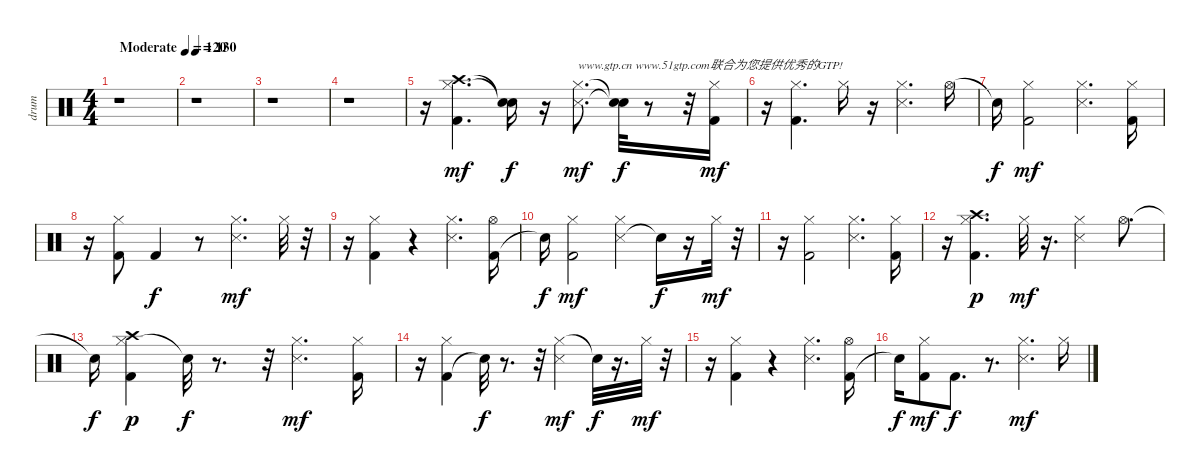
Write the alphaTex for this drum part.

\track ("drum" "drum") {instrument percussion}
\staff {score}
\articulation defaults
\ts (4 4)
\tempo (120 "Moderate")
\clef neutral
\ks c
r.1{dy mf} |
\tempo 130
r.1 |
r.1 |
r.1 |
r.16 ("Crash high (hit)" "Hi-Hat (closed)" "Kick (hit) 2").4{d} ("Snare (hit)"{t} "Snare (hit)"{t}).16{dy f} r.16 ("Hi-Hat (closed)" "Snare (side stick) 3").8{d txt "www.gtp.cn www.51gtp.com联合为您提供优秀的GTP!" dy mf} ("Snare (hit)"{t} "Snare (hit)"{t}).32{dy f} r.8 r.32 ("Kick (hit) 2" "Hi-Hat (closed)").16{dy mf} |
r.16 ("Kick (hit) 2" "Hi-Hat (closed)").4{d} "Hi-Hat (closed)".16 r.16 ("Hi-Hat (closed)" "Snare (side stick) 3").4{d} "Hi-Hat (open)".16 |
"Snare (hit)"{t}.16{dy f} ("Kick (hit) 2" "Hi-Hat (closed)").2{dy mf} ("Snare (side stick) 3" "Hi-Hat (closed)").4{d} ("Kick (hit) 2" "Hi-Hat (closed)").16 |
r.16 ("Kick (hit) 2" "Hi-Hat (closed)").8 "Kick (hit) 2".4{dy f} r.8 ("Hi-Hat (closed)" "Snare (side stick) 3").4{d dy mf} "Hi-Hat (closed)".32 r.32 |
r.16 ("Kick (hit) 2" "Hi-Hat (closed)").4 r.4 ("Hi-Hat (closed)" "Snare (side stick) 3").4{d} ("Kick (hit) 2" "Hi-Hat (open)").16 |
"Snare (hit)"{t}.16{dy f} ("Hi-Hat (closed)" "Kick (hit) 2").2{dy mf} ("Snare (side stick) 3" "Hi-Hat (closed)").4 "Snare (hit)"{t}.16{dy f} r.16 "Hi-Hat (closed)".32{dy mf} r.32 |
r.16 ("Kick (hit) 2" "Hi-Hat (closed)").2 ("Hi-Hat (closed)" "Snare (side stick) 3").4{d} ("Kick (hit) 2" "Hi-Hat (closed)").16 |
r.16 ("Kick (hit) 2" "Hi-Hat (closed)" "Crash high (hit)").4{d dy p} "Hi-Hat (closed)".32{dy mf} r.16{d} ("Hi-Hat (closed)" "Snare (side stick) 3").4 "Hi-Hat (open)".8{d} |
"Snare (hit)"{t}.16{dy f} ("Hi-Hat (closed)" "Kick (hit) 2" "Crash high (hit)").4{dy p} "Snare (hit)"{t}.32{dy f} r.8{d} r.32 ("Hi-Hat (closed)" "Snare (side stick) 3").4{d dy mf} ("Kick (hit) 2" "Hi-Hat (closed)").16 |
r.16 ("Kick (hit) 2" "Hi-Hat (closed)").4 "Snare (hit)"{t}.32{dy f} r.8{d} r.32 ("Hi-Hat (closed)" "Snare (side stick) 3").4{dy mf} "Snare (hit)"{t}.32{dy f} r.16{d} "Hi-Hat (closed)".32{dy mf} r.32 |
r.16 ("Kick (hit) 2" "Hi-Hat (closed)").4 r.4 ("Hi-Hat (closed)" "Snare (side stick) 3").4{d} ("Kick (hit) 2" "Hi-Hat (open)").16 |
"Snare (hit)"{t}.16{dy f} ("Kick (hit) 2" "Hi-Hat (closed)").8{dy mf} "Kick (hit) 2".8{d dy f} r.8{d} ("Hi-Hat (closed)" "Snare (side stick) 3").4{d dy mf} "Hi-Hat (closed)".16
